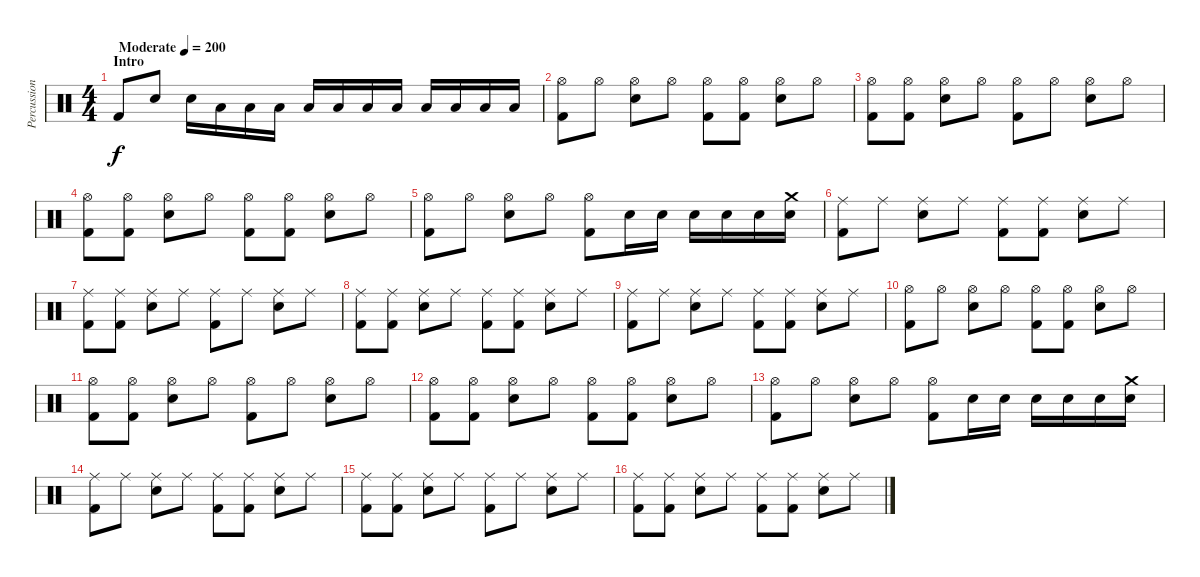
\track ("Percussion" "Percussion") {instrument percussion}
\staff {score}
\articulation defaults
\ts (4 4)
\section ("" "Intro")
\tempo (200 "Moderate")
\clef neutral
\ks c "Kick (hit) 2".8{dy f} "Snare (hit) 2".8 "Snare (hit) 2".16 "Low Floor Tom (hit)".16 "Low Floor Tom (hit)".16 "Low Floor Tom (hit)".16 "Low Floor Tom (hit)".16 "Low Floor Tom (hit)".16 "Low Floor Tom (hit)".16 "Low Floor Tom (hit)".16 "Low Floor Tom (hit)".16 "Low Floor Tom (hit)".16 "Low Floor Tom (hit)".16 "Low Floor Tom (hit)".16
|
("Hi-Hat (open)" "Kick (hit) 2").8 "Hi-Hat (open)".8 ("Hi-Hat (open)" "Snare (hit) 2").8 "Hi-Hat (open)".8 ("Hi-Hat (open)" "Kick (hit) 2").8 ("Hi-Hat (open)" "Kick (hit) 2").8 ("Hi-Hat (open)" "Snare (hit) 2").8 "Hi-Hat (open)".8 |
("Hi-Hat (open)" "Kick (hit) 2").8 ("Hi-Hat (open)" "Kick (hit) 2").8 ("Hi-Hat (open)" "Snare (hit) 2").8 "Hi-Hat (open)".8 ("Hi-Hat (open)" "Kick (hit) 2").8 "Hi-Hat (open)".8 ("Hi-Hat (open)" "Snare (hit) 2").8 "Hi-Hat (open)".8 |
("Hi-Hat (open)" "Kick (hit) 2").8 ("Hi-Hat (open)" "Kick (hit) 2").8 ("Hi-Hat (open)" "Snare (hit) 2").8 "Hi-Hat (open)".8 ("Hi-Hat (open)" "Kick (hit) 2").8 ("Hi-Hat (open)" "Kick (hit) 2").8 ("Hi-Hat (open)" "Snare (hit) 2").8 "Hi-Hat (open)".8 |
("Hi-Hat (open)" "Kick (hit) 2").8 "Hi-Hat (open)".8 ("Hi-Hat (open)" "Snare (hit) 2").8 "Hi-Hat (open)".8 ("Hi-Hat (open)" "Kick (hit) 2").8 "Snare (hit) 2".16 "Snare (hit) 2".16 "Snare (hit) 2".16 "Snare (hit) 2".16 "Snare (hit) 2".16 ("Crash medium (hit)" "Snare (hit) 2").16 |
("Ride (middle)" "Kick (hit) 2").8 "Ride (middle)".8 ("Ride (middle)" "Snare (hit) 2").8 "Ride (middle)".8 ("Ride (middle)" "Kick (hit) 2").8 ("Ride (middle)" "Kick (hit) 2").8 ("Ride (middle)" "Snare (hit) 2").8 "Ride (middle)".8 |
("Ride (middle)" "Kick (hit) 2").8 ("Ride (middle)" "Kick (hit) 2").8 ("Ride (middle)" "Snare (hit) 2").8 "Ride (middle)".8 ("Ride (middle)" "Kick (hit) 2").8 "Ride (middle)".8 ("Ride (middle)" "Snare (hit) 2").8 "Ride (middle)".8 |
("Ride (middle)" "Kick (hit) 2").8 ("Ride (middle)" "Kick (hit) 2").8 ("Ride (middle)" "Snare (hit) 2").8 "Ride (middle)".8 ("Ride (middle)" "Kick (hit) 2").8 ("Ride (middle)" "Kick (hit) 2").8 ("Ride (middle)" "Snare (hit) 2").8 "Ride (middle)".8 |
("Ride (middle)" "Kick (hit) 2").8 "Ride (middle)".8 ("Ride (middle)" "Snare (hit) 2").8 "Ride (middle)".8 ("Ride (middle)" "Kick (hit) 2").8 ("Ride (middle)" "Kick (hit) 2").8 ("Ride (middle)" "Snare (hit) 2").8 "Ride (middle)".8 |
("Hi-Hat (open)" "Kick (hit) 2").8 "Hi-Hat (open)".8 ("Hi-Hat (open)" "Snare (hit) 2").8 "Hi-Hat (open)".8 ("Hi-Hat (open)" "Kick (hit) 2").8 ("Hi-Hat (open)" "Kick (hit) 2").8 ("Hi-Hat (open)" "Snare (hit) 2").8 "Hi-Hat (open)".8 |
("Hi-Hat (open)" "Kick (hit) 2").8 ("Hi-Hat (open)" "Kick (hit) 2").8 ("Hi-Hat (open)" "Snare (hit) 2").8 "Hi-Hat (open)".8 ("Hi-Hat (open)" "Kick (hit) 2").8 "Hi-Hat (open)".8 ("Hi-Hat (open)" "Snare (hit) 2").8 "Hi-Hat (open)".8 |
("Hi-Hat (open)" "Kick (hit) 2").8 ("Hi-Hat (open)" "Kick (hit) 2").8 ("Hi-Hat (open)" "Snare (hit) 2").8 "Hi-Hat (open)".8 ("Hi-Hat (open)" "Kick (hit) 2").8 ("Hi-Hat (open)" "Kick (hit) 2").8 ("Hi-Hat (open)" "Snare (hit) 2").8 "Hi-Hat (open)".8 |
("Hi-Hat (open)" "Kick (hit) 2").8 "Hi-Hat (open)".8 ("Hi-Hat (open)" "Snare (hit) 2").8 "Hi-Hat (open)".8 ("Hi-Hat (open)" "Kick (hit) 2").8 "Snare (hit) 2".16 "Snare (hit) 2".16 "Snare (hit) 2".16 "Snare (hit) 2".16 "Snare (hit) 2".16 ("Crash medium (hit)" "Snare (hit) 2").16 |
("Ride (middle)" "Kick (hit) 2").8 "Ride (middle)".8 ("Ride (middle)" "Snare (hit) 2").8 "Ride (middle)".8 ("Ride (middle)" "Kick (hit) 2").8 ("Ride (middle)" "Kick (hit) 2").8 ("Ride (middle)" "Snare (hit) 2").8 "Ride (middle)".8 |
("Ride (middle)" "Kick (hit) 2").8 ("Ride (middle)" "Kick (hit) 2").8 ("Ride (middle)" "Snare (hit) 2").8 "Ride (middle)".8 ("Ride (middle)" "Kick (hit) 2").8 "Ride (middle)".8 ("Ride (middle)" "Snare (hit) 2").8 "Ride (middle)".8 |
("Ride (middle)" "Kick (hit) 2").8 ("Ride (middle)" "Kick (hit) 2").8 ("Ride (middle)" "Snare (hit) 2").8 "Ride (middle)".8 ("Ride (middle)" "Kick (hit) 2").8 ("Ride (middle)" "Kick (hit) 2").8 ("Ride (middle)" "Snare (hit) 2").8 "Ride (middle)".8
